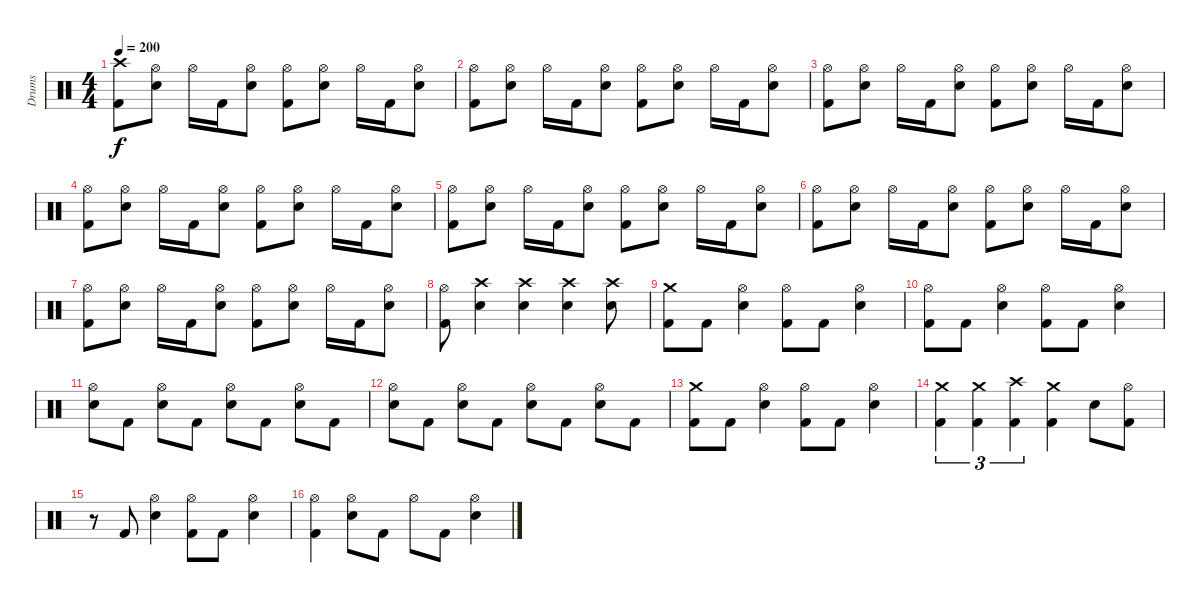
\track ("Drums" "Drums") {instrument percussion}
\staff {score}
\articulation defaults
\ts (4 4)
\tempo 200
\clef neutral
\ks c
("Crash high (hit)" "Kick (hit) 2").8{dy f} ("Hi-Hat (open)" "Snare (hit) 2").8 "Hi-Hat (open)".16 "Kick (hit) 2".16 ("Hi-Hat (open)" "Snare (hit) 2").8 ("Hi-Hat (open)" "Kick (hit) 2").8 ("Hi-Hat (open)" "Snare (hit) 2").8 "Hi-Hat (open)".16 "Kick (hit) 2".16 ("Hi-Hat (open)" "Snare (hit) 2").8 |
("Hi-Hat (open)" "Kick (hit) 2").8 ("Hi-Hat (open)" "Snare (hit) 2").8 "Hi-Hat (open)".16 "Kick (hit) 2".16 ("Hi-Hat (open)" "Snare (hit) 2").8 ("Hi-Hat (open)" "Kick (hit) 2").8 ("Hi-Hat (open)" "Snare (hit) 2").8 "Hi-Hat (open)".16 "Kick (hit) 2".16 ("Hi-Hat (open)" "Snare (hit) 2").8 |
("Hi-Hat (open)" "Kick (hit) 2").8 ("Hi-Hat (open)" "Snare (hit) 2").8 "Hi-Hat (open)".16 "Kick (hit) 2".16 ("Hi-Hat (open)" "Snare (hit) 2").8 ("Hi-Hat (open)" "Kick (hit) 2").8 ("Hi-Hat (open)" "Snare (hit) 2").8 "Hi-Hat (open)".16 "Kick (hit) 2".16 ("Hi-Hat (open)" "Snare (hit) 2").8 |
("Hi-Hat (open)" "Kick (hit) 2").8 ("Hi-Hat (open)" "Snare (hit) 2").8 "Hi-Hat (open)".16 "Kick (hit) 2".16 ("Hi-Hat (open)" "Snare (hit) 2").8 ("Hi-Hat (open)" "Kick (hit) 2").8 ("Hi-Hat (open)" "Snare (hit) 2").8 "Hi-Hat (open)".16 "Kick (hit) 2".16 ("Hi-Hat (open)" "Snare (hit) 2").8 |
("Hi-Hat (open)" "Kick (hit) 2").8 ("Hi-Hat (open)" "Snare (hit) 2").8 "Hi-Hat (open)".16 "Kick (hit) 2".16 ("Hi-Hat (open)" "Snare (hit) 2").8 ("Hi-Hat (open)" "Kick (hit) 2").8 ("Hi-Hat (open)" "Snare (hit) 2").8 "Hi-Hat (open)".16 "Kick (hit) 2".16 ("Hi-Hat (open)" "Snare (hit) 2").8 |
("Hi-Hat (open)" "Kick (hit) 2").8 ("Hi-Hat (open)" "Snare (hit) 2").8 "Hi-Hat (open)".16 "Kick (hit) 2".16 ("Hi-Hat (open)" "Snare (hit) 2").8 ("Hi-Hat (open)" "Kick (hit) 2").8 ("Hi-Hat (open)" "Snare (hit) 2").8 "Hi-Hat (open)".16 "Kick (hit) 2".16 ("Hi-Hat (open)" "Snare (hit) 2").8 |
("Hi-Hat (open)" "Kick (hit) 2").8 ("Hi-Hat (open)" "Snare (hit) 2").8 "Hi-Hat (open)".16 "Kick (hit) 2".16 ("Hi-Hat (open)" "Snare (hit) 2").8 ("Hi-Hat (open)" "Kick (hit) 2").8 ("Hi-Hat (open)" "Snare (hit) 2").8 "Hi-Hat (open)".16 "Kick (hit) 2".16 ("Hi-Hat (open)" "Snare (hit) 2").8 |
("Hi-Hat (open)" "Kick (hit) 2").8 ("Crash high (hit)" "Snare (hit) 2").4 ("Crash high (hit)" "Snare (hit) 2").4 ("Crash high (hit)" "Snare (hit) 2").4 ("Crash high (hit)" "Snare (hit) 2").8 |
("Crash medium (hit)" "Kick (hit) 2").8 "Kick (hit) 2".8 ("Hi-Hat (open)" "Snare (hit) 2").4 ("Hi-Hat (open)" "Kick (hit) 2").8 "Kick (hit) 2".8 ("Hi-Hat (open)" "Snare (hit) 2").4 |
("Hi-Hat (open)" "Kick (hit) 2").8 "Kick (hit) 2".8 ("Hi-Hat (open)" "Snare (hit) 2").4 ("Hi-Hat (open)" "Kick (hit) 2").8 "Kick (hit) 2".8 ("Hi-Hat (open)" "Snare (hit) 2").4 |
("Hi-Hat (open)" "Snare (hit) 2").8 "Kick (hit) 2".8 ("Hi-Hat (open)" "Snare (hit) 2").8 "Kick (hit) 2".8 ("Hi-Hat (open)" "Snare (hit) 2").8 "Kick (hit) 2".8 ("Hi-Hat (open)" "Snare (hit) 2").8 "Kick (hit) 2".8 |
("Hi-Hat (open)" "Snare (hit) 2").8 "Kick (hit) 2".8 ("Hi-Hat (open)" "Snare (hit) 2").8 "Kick (hit) 2".8 ("Hi-Hat (open)" "Snare (hit) 2").8 "Kick (hit) 2".8 ("Hi-Hat (open)" "Snare (hit) 2").8 "Kick (hit) 2".8 |
("Crash medium (hit)" "Kick (hit) 2").8 "Kick (hit) 2".8 ("Hi-Hat (open)" "Snare (hit) 2").4 ("Hi-Hat (open)" "Kick (hit) 2").8 "Kick (hit) 2".8 ("Hi-Hat (open)" "Snare (hit) 2").4 |
("Crash medium (hit)" "Kick (hit) 2").4{tu (3 2)} ("Crash medium (hit)" "Kick (hit) 2").4{tu (3 2)} ("Crash high (hit)" "Kick (hit) 2").4{tu (3 2)} ("Crash medium (hit)" "Kick (hit) 2").4 "Snare (hit) 2".8 ("Hi-Hat (open)" "Kick (hit) 2").8 |
r.8 "Kick (hit) 2".8 ("Hi-Hat (open)" "Snare (hit) 2").4 ("Hi-Hat (open)" "Kick (hit) 2").8 "Kick (hit) 2".8 ("Hi-Hat (open)" "Snare (hit) 2").4 |
("Hi-Hat (open)" "Kick (hit) 2").4 ("Hi-Hat (open)" "Snare (hit) 2").8 "Kick (hit) 2".8 "Hi-Hat (open)".8 "Kick (hit) 2".8 ("Hi-Hat (open)" "Snare (hit) 2").4
